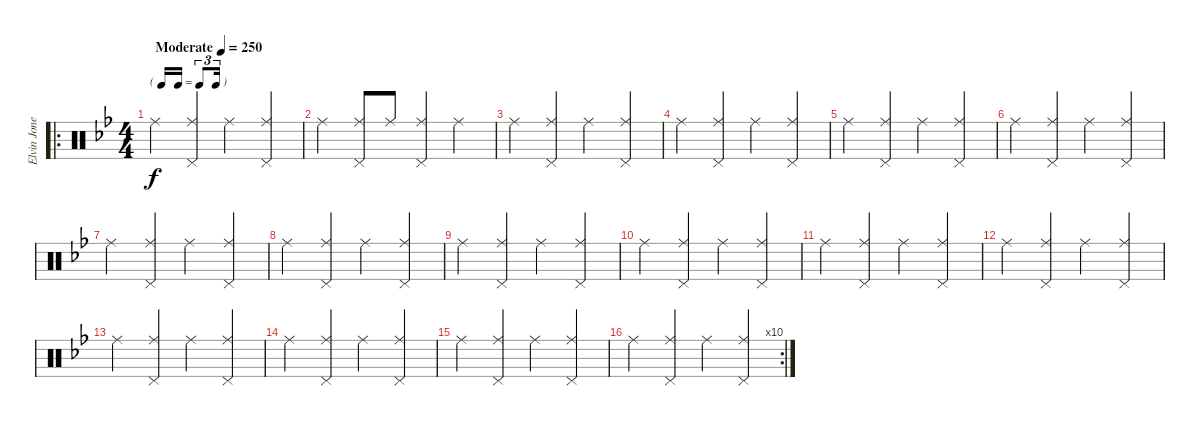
\track ("Elvin Jones" "Elvin Jone") {solo instrument percussion}
\staff {score}
\articulation defaults
\ro
\ts (4 4)
\tf triplet16th
\tempo (250 "Moderate")
\clef neutral
\ks bb "Ride (middle)".4{dy f}
("Ride (middle)" "Pedal Hi-Hat (hit)").4 "Ride (middle)".4 ("Ride (middle)" "Pedal Hi-Hat (hit)").4 |
"Ride (middle)".4 ("Ride (middle)" "Pedal Hi-Hat (hit)").8 "Ride (middle)".8 ("Ride (middle)" "Pedal Hi-Hat (hit)").4 "Ride (middle)".4 |
"Ride (middle)".4 ("Ride (middle)" "Pedal Hi-Hat (hit)").4 "Ride (middle)".4 ("Ride (middle)" "Pedal Hi-Hat (hit)").4 |
"Ride (middle)".4 ("Ride (middle)" "Pedal Hi-Hat (hit)").4 "Ride (middle)".4 ("Ride (middle)" "Pedal Hi-Hat (hit)").4 |
"Ride (middle)".4 ("Ride (middle)" "Pedal Hi-Hat (hit)").4 "Ride (middle)".4 ("Ride (middle)" "Pedal Hi-Hat (hit)").4 |
"Ride (middle)".4 ("Ride (middle)" "Pedal Hi-Hat (hit)").4 "Ride (middle)".4 ("Ride (middle)" "Pedal Hi-Hat (hit)").4 |
"Ride (middle)".4 ("Ride (middle)" "Pedal Hi-Hat (hit)").4 "Ride (middle)".4 ("Ride (middle)" "Pedal Hi-Hat (hit)").4 |
"Ride (middle)".4 ("Ride (middle)" "Pedal Hi-Hat (hit)").4 "Ride (middle)".4 ("Ride (middle)" "Pedal Hi-Hat (hit)").4 |
"Ride (middle)".4 ("Ride (middle)" "Pedal Hi-Hat (hit)").4 "Ride (middle)".4 ("Ride (middle)" "Pedal Hi-Hat (hit)").4 |
"Ride (middle)".4 ("Ride (middle)" "Pedal Hi-Hat (hit)").4 "Ride (middle)".4 ("Ride (middle)" "Pedal Hi-Hat (hit)").4 |
"Ride (middle)".4 ("Ride (middle)" "Pedal Hi-Hat (hit)").4 "Ride (middle)".4 ("Ride (middle)" "Pedal Hi-Hat (hit)").4 |
"Ride (middle)".4 ("Ride (middle)" "Pedal Hi-Hat (hit)").4 "Ride (middle)".4 ("Ride (middle)" "Pedal Hi-Hat (hit)").4 |
"Ride (middle)".4 ("Ride (middle)" "Pedal Hi-Hat (hit)").4 "Ride (middle)".4 ("Ride (middle)" "Pedal Hi-Hat (hit)").4 |
"Ride (middle)".4 ("Ride (middle)" "Pedal Hi-Hat (hit)").4 "Ride (middle)".4 ("Ride (middle)" "Pedal Hi-Hat (hit)").4 |
"Ride (middle)".4 ("Ride (middle)" "Pedal Hi-Hat (hit)").4 "Ride (middle)".4 ("Ride (middle)" "Pedal Hi-Hat (hit)").4 |
\rc 10 "Ride (middle)".4
("Ride (middle)" "Pedal Hi-Hat (hit)").4 "Ride (middle)".4 ("Ride (middle)" "Pedal Hi-Hat (hit)").4
